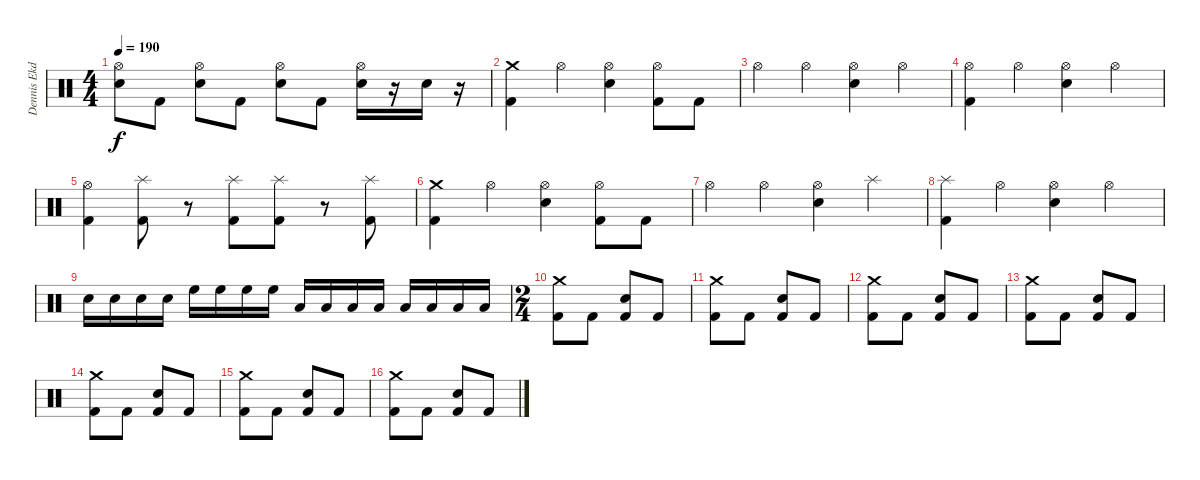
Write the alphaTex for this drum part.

\track ("Dennis Ekdahl" "Dennis Ekd") {instrument percussion}
\staff {score}
\articulation defaults
\ts (4 4)
\tempo 190
\clef neutral
\ks c
("Hi-Hat (open)" "Snare (hit) 2").8{dy f} "Kick (hit) 2".8 ("Hi-Hat (open)" "Snare (hit) 2").8 "Kick (hit) 2".8 ("Hi-Hat (open)" "Snare (hit) 2").8 "Kick (hit) 2".8 ("Hi-Hat (open)" "Snare (hit) 2").16 r.16 "Snare (hit) 2".16 r.16 |
("Crash medium (hit)" "Kick (hit) 2").4 "Hi-Hat (open)".4 ("Hi-Hat (open)" "Snare (hit) 2").4 ("Hi-Hat (open)" "Kick (hit) 2").8 "Kick (hit) 2".8 |
"Hi-Hat (open)".4 "Hi-Hat (open)".4 ("Hi-Hat (open)" "Snare (hit) 2").4 "Hi-Hat (open)".4 |
("Hi-Hat (open)" "Kick (hit) 2").4 "Hi-Hat (open)".4 ("Hi-Hat (open)" "Snare (hit) 2").4 "Hi-Hat (open)".4 |
("Hi-Hat (open)" "Kick (hit) 2").4 ("Splash (hit)" "Kick (hit) 2").8 r.8 ("Splash (hit)" "Kick (hit) 2").8 ("Splash (hit)" "Kick (hit) 2").8 r.8 ("Splash (hit)" "Kick (hit) 2").8 |
("Crash medium (hit)" "Kick (hit) 2").4 "Hi-Hat (open)".4 ("Hi-Hat (open)" "Snare (hit) 2").4 ("Hi-Hat (open)" "Kick (hit) 2").8 "Kick (hit) 2".8 |
"Hi-Hat (open)".4 "Hi-Hat (open)".4 ("Hi-Hat (open)" "Snare (hit) 2").4 "Splash (hit)".4 |
("Splash (hit)" "Kick (hit) 2").4 "Hi-Hat (open)".4 ("Hi-Hat (open)" "Snare (hit) 2").4 "Hi-Hat (open)".4 |
"Snare (hit) 2".16 "Snare (hit) 2".16 "Snare (hit) 2".16 "Snare (hit) 2".16 "High Floor Tom (hit)".16 "High Floor Tom (hit)".16 "High Floor Tom (hit)".16 "High Floor Tom (hit)".16 "Low Tom (hit)".16 "Low Tom (hit)".16 "Low Tom (hit)".16 "Low Tom (hit)".16 "Low Floor Tom (hit)".16 "Low Floor Tom (hit)".16 "Low Floor Tom (hit)".16 "Low Floor Tom (hit)".16 |
\ts (2 4)
("Crash medium (hit)" "Kick (hit) 2").8 "Kick (hit) 2".8 ("Snare (hit) 2" "Kick (hit) 2").8 "Kick (hit) 2".8 |
("Crash medium (hit)" "Kick (hit) 2").8 "Kick (hit) 2".8 ("Snare (hit) 2" "Kick (hit) 2").8 "Kick (hit) 2".8 |
("Crash medium (hit)" "Kick (hit) 2").8 "Kick (hit) 2".8 ("Snare (hit) 2" "Kick (hit) 2").8 "Kick (hit) 2".8 |
("Crash medium (hit)" "Kick (hit) 2").8 "Kick (hit) 2".8 ("Snare (hit) 2" "Kick (hit) 2").8 "Kick (hit) 2".8 |
("Crash medium (hit)" "Kick (hit) 2").8 "Kick (hit) 2".8 ("Snare (hit) 2" "Kick (hit) 2").8 "Kick (hit) 2".8 |
("Crash medium (hit)" "Kick (hit) 2").8 "Kick (hit) 2".8 ("Snare (hit) 2" "Kick (hit) 2").8 "Kick (hit) 2".8 |
("Crash medium (hit)" "Kick (hit) 2").8 "Kick (hit) 2".8 ("Snare (hit) 2" "Kick (hit) 2").8 "Kick (hit) 2".8
